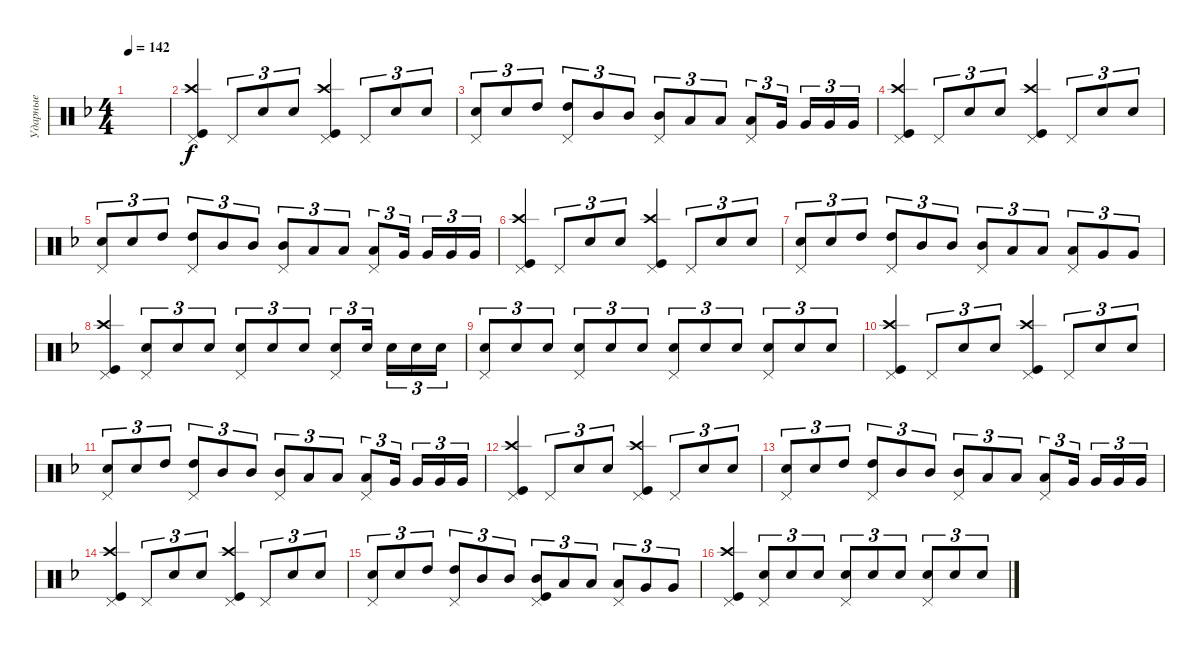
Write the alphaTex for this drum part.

\track ("Ударные" "Ударные") {instrument percussion}
\staff {score}
\articulation defaults
\ts (4 4)
\tempo 142
\clef neutral
\ks dminor
|
("Kick (hit)" "Crash high (hit)" "Pedal Hi-Hat (hit)").4 "Pedal Hi-Hat (hit)".8{tu (3 2)} "Snare (hit) 2".8{tu (3 2)} "Snare (hit) 2".8{tu (3 2)} ("Kick (hit)" "Crash high (hit)" "Pedal Hi-Hat (hit)").4 "Pedal Hi-Hat (hit)".8{tu (3 2)} "Snare (hit) 2".8{tu (3 2)} "Snare (hit) 2".8{tu (3 2)} |
("Pedal Hi-Hat (hit)" "Snare (hit) 2").8{tu (3 2)} "Snare (hit) 2".8{tu (3 2)} "High Tom (hit)".8{tu (3 2)} ("High Tom (hit)" "Pedal Hi-Hat (hit)").8{tu (3 2)} "Mid Tom (hit)".8{tu (3 2)} "Mid Tom (hit)".8{tu (3 2)} ("Mid Tom (hit)" "Pedal Hi-Hat (hit)").8{tu (3 2)} "Low Tom (hit)".8{tu (3 2)} "Low Tom (hit)".8{tu (3 2)} ("Low Tom (hit)" "Pedal Hi-Hat (hit)").8{tu (3 2)} "Very Low Tom (hit)".16{tu (3 2) beam splitsecondary} "Very Low Tom (hit)".16{tu (3 2)} "Very Low Tom (hit)".16{tu (3 2)} "Very Low Tom (hit)".16{tu (3 2)} |
("Kick (hit)" "Crash high (hit)" "Pedal Hi-Hat (hit)").4 "Pedal Hi-Hat (hit)".8{tu (3 2)} "Snare (hit) 2".8{tu (3 2)} "Snare (hit) 2".8{tu (3 2)} ("Kick (hit)" "Crash high (hit)" "Pedal Hi-Hat (hit)").4 "Pedal Hi-Hat (hit)".8{tu (3 2)} "Snare (hit) 2".8{tu (3 2)} "Snare (hit) 2".8{tu (3 2)} |
("Pedal Hi-Hat (hit)" "Snare (hit) 2").8{tu (3 2)} "Snare (hit) 2".8{tu (3 2)} "High Tom (hit)".8{tu (3 2)} ("High Tom (hit)" "Pedal Hi-Hat (hit)").8{tu (3 2)} "Mid Tom (hit)".8{tu (3 2)} "Mid Tom (hit)".8{tu (3 2)} ("Mid Tom (hit)" "Pedal Hi-Hat (hit)").8{tu (3 2)} "Low Tom (hit)".8{tu (3 2)} "Low Tom (hit)".8{tu (3 2)} ("Low Tom (hit)" "Pedal Hi-Hat (hit)").8{tu (3 2)} "Very Low Tom (hit)".16{tu (3 2) beam splitsecondary} "Very Low Tom (hit)".16{tu (3 2)} "Very Low Tom (hit)".16{tu (3 2)} "Very Low Tom (hit)".16{tu (3 2)} |
("Kick (hit)" "Crash high (hit)" "Pedal Hi-Hat (hit)").4 "Pedal Hi-Hat (hit)".8{tu (3 2)} "Snare (hit) 2".8{tu (3 2)} "Snare (hit) 2".8{tu (3 2)} ("Kick (hit)" "Crash high (hit)" "Pedal Hi-Hat (hit)").4 "Pedal Hi-Hat (hit)".8{tu (3 2)} "Snare (hit) 2".8{tu (3 2)} "Snare (hit) 2".8{tu (3 2)} |
("Pedal Hi-Hat (hit)" "Snare (hit) 2").8{tu (3 2)} "Snare (hit) 2".8{tu (3 2)} "High Tom (hit)".8{tu (3 2)} ("High Tom (hit)" "Pedal Hi-Hat (hit)").8{tu (3 2)} "Mid Tom (hit)".8{tu (3 2)} "Mid Tom (hit)".8{tu (3 2)} ("Mid Tom (hit)" "Pedal Hi-Hat (hit)").8{tu (3 2)} "Low Tom (hit)".8{tu (3 2)} "Low Tom (hit)".8{tu (3 2)} ("Low Tom (hit)" "Pedal Hi-Hat (hit)").8{tu (3 2)} "Very Low Tom (hit)".8{tu (3 2)} "Very Low Tom (hit)".8{tu (3 2)} |
("Kick (hit)" "Crash high (hit)" "Pedal Hi-Hat (hit)").4 ("Snare (hit) 2" "Pedal Hi-Hat (hit)").8{tu (3 2)} "Snare (hit) 2".8{tu (3 2)} "Snare (hit) 2".8{tu (3 2)} ("Snare (hit) 2" "Pedal Hi-Hat (hit)").8{tu (3 2)} "Snare (hit) 2".8{tu (3 2)} "Snare (hit) 2".8{tu (3 2)} ("Snare (hit) 2" "Pedal Hi-Hat (hit)").8{tu (3 2)} "Snare (hit) 2".16{tu (3 2) beam splitsecondary} "Snare (hit) 2".16{tu (3 2)} "Snare (hit) 2".16{tu (3 2)} "Snare (hit) 2".16{tu (3 2)} |
("Snare (hit) 2" "Pedal Hi-Hat (hit)").8{tu (3 2)} "Snare (hit) 2".8{tu (3 2)} "Snare (hit) 2".8{tu (3 2)} ("Snare (hit) 2" "Pedal Hi-Hat (hit)").8{tu (3 2)} "Snare (hit) 2".8{tu (3 2)} "Snare (hit) 2".8{tu (3 2)} ("Snare (hit) 2" "Pedal Hi-Hat (hit)").8{tu (3 2)} "Snare (hit) 2".8{tu (3 2)} "Snare (hit) 2".8{tu (3 2)} ("Snare (hit) 2" "Pedal Hi-Hat (hit)").8{tu (3 2)} "Snare (hit) 2".8{tu (3 2)} "Snare (hit) 2".8{tu (3 2)} |
("Kick (hit)" "Crash high (hit)" "Pedal Hi-Hat (hit)").4 "Pedal Hi-Hat (hit)".8{tu (3 2)} "Snare (hit) 2".8{tu (3 2)} "Snare (hit) 2".8{tu (3 2)} ("Kick (hit)" "Crash high (hit)" "Pedal Hi-Hat (hit)").4 "Pedal Hi-Hat (hit)".8{tu (3 2)} "Snare (hit) 2".8{tu (3 2)} "Snare (hit) 2".8{tu (3 2)} |
("Pedal Hi-Hat (hit)" "Snare (hit) 2").8{tu (3 2)} "Snare (hit) 2".8{tu (3 2)} "High Tom (hit)".8{tu (3 2)} ("High Tom (hit)" "Pedal Hi-Hat (hit)").8{tu (3 2)} "Mid Tom (hit)".8{tu (3 2)} "Mid Tom (hit)".8{tu (3 2)} ("Mid Tom (hit)" "Pedal Hi-Hat (hit)").8{tu (3 2)} "Low Tom (hit)".8{tu (3 2)} "Low Tom (hit)".8{tu (3 2)} ("Low Tom (hit)" "Pedal Hi-Hat (hit)").8{tu (3 2)} "Very Low Tom (hit)".16{tu (3 2) beam splitsecondary} "Very Low Tom (hit)".16{tu (3 2)} "Very Low Tom (hit)".16{tu (3 2)} "Very Low Tom (hit)".16{tu (3 2)} |
("Kick (hit)" "Crash high (hit)" "Pedal Hi-Hat (hit)").4 "Pedal Hi-Hat (hit)".8{tu (3 2)} "Snare (hit) 2".8{tu (3 2)} "Snare (hit) 2".8{tu (3 2)} ("Kick (hit)" "Crash high (hit)" "Pedal Hi-Hat (hit)").4 "Pedal Hi-Hat (hit)".8{tu (3 2)} "Snare (hit) 2".8{tu (3 2)} "Snare (hit) 2".8{tu (3 2)} |
("Pedal Hi-Hat (hit)" "Snare (hit) 2").8{tu (3 2)} "Snare (hit) 2".8{tu (3 2)} "High Tom (hit)".8{tu (3 2)} ("High Tom (hit)" "Pedal Hi-Hat (hit)").8{tu (3 2)} "Mid Tom (hit)".8{tu (3 2)} "Mid Tom (hit)".8{tu (3 2)} ("Mid Tom (hit)" "Pedal Hi-Hat (hit)").8{tu (3 2)} "Low Tom (hit)".8{tu (3 2)} "Low Tom (hit)".8{tu (3 2)} ("Low Tom (hit)" "Pedal Hi-Hat (hit)").8{tu (3 2)} "Very Low Tom (hit)".16{tu (3 2) beam splitsecondary} "Very Low Tom (hit)".16{tu (3 2)} "Very Low Tom (hit)".16{tu (3 2)} "Very Low Tom (hit)".16{tu (3 2)} |
("Kick (hit)" "Crash high (hit)" "Pedal Hi-Hat (hit)").4 "Pedal Hi-Hat (hit)".8{tu (3 2)} "Snare (hit) 2".8{tu (3 2)} "Snare (hit) 2".8{tu (3 2)} ("Kick (hit)" "Crash high (hit)" "Pedal Hi-Hat (hit)").4 "Pedal Hi-Hat (hit)".8{tu (3 2)} "Snare (hit) 2".8{tu (3 2)} "Snare (hit) 2".8{tu (3 2)} |
("Pedal Hi-Hat (hit)" "Snare (hit) 2").8{tu (3 2)} "Snare (hit) 2".8{tu (3 2)} "High Tom (hit)".8{tu (3 2)} ("High Tom (hit)" "Pedal Hi-Hat (hit)").8{tu (3 2)} "Mid Tom (hit)".8{tu (3 2)} "Mid Tom (hit)".8{tu (3 2)} ("Mid Tom (hit)" "Pedal Hi-Hat (hit)" "Kick (hit)").8{tu (3 2)} "Low Tom (hit)".8{tu (3 2)} "Low Tom (hit)".8{tu (3 2)} ("Low Tom (hit)" "Pedal Hi-Hat (hit)").8{tu (3 2)} "Very Low Tom (hit)".8{tu (3 2)} "Very Low Tom (hit)".8{tu (3 2)} |
("Kick (hit)" "Crash high (hit)" "Pedal Hi-Hat (hit)").4 ("Snare (hit) 2" "Pedal Hi-Hat (hit)").8{tu (3 2)} "Snare (hit) 2".8{tu (3 2)} "Snare (hit) 2".8{tu (3 2)} ("Snare (hit) 2" "Pedal Hi-Hat (hit)").8{tu (3 2)} "Snare (hit) 2".8{tu (3 2)} "Snare (hit) 2".8{tu (3 2)} ("Snare (hit) 2" "Pedal Hi-Hat (hit)").8{tu (3 2)} "Snare (hit) 2".8{tu (3 2)} "Snare (hit) 2".8{tu (3 2)}
